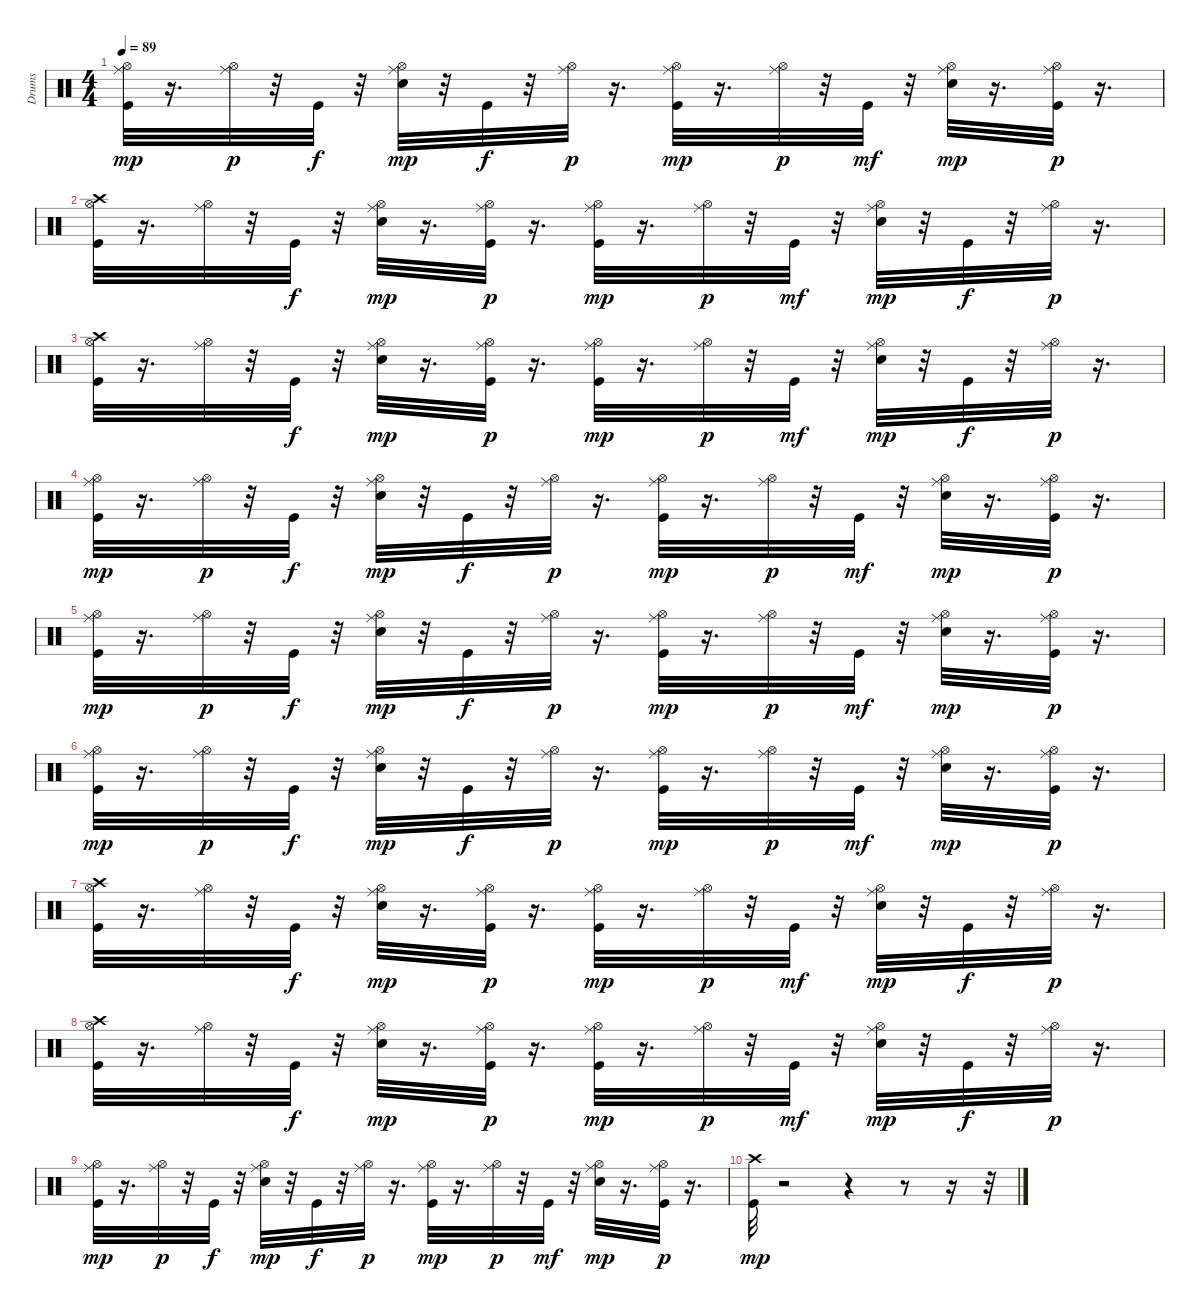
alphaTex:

\track ("Drums   " "Drums   ") {instrument percussion}
\staff {score}
\articulation defaults
\ts (4 4)
\tempo 89
\clef neutral
\ks c
("Kick (hit)" "Hi-Hat (open)" "Ride (middle)").32{dy mp} r.16{d} ("Hi-Hat (open)" "Ride (middle)").32{dy p} r.32 "Kick (hit)".32{dy f} r.32 ("Electric Snare (hit)" "Hi-Hat (open)" "Ride (middle)").32{dy mp} r.32 "Kick (hit)".32{dy f} r.32 ("Hi-Hat (open)" "Ride (middle)").32{dy p} r.16{d} ("Kick (hit)" "Hi-Hat (open)" "Ride (middle)").32{dy mp} r.16{d} ("Hi-Hat (open)" "Ride (middle)").32{dy p} r.32 "Kick (hit)".32{dy mf} r.32 ("Electric Snare (hit)" "Hi-Hat (open)" "Ride (middle)").32{dy mp} r.16{d} ("Kick (hit)" "Hi-Hat (open)" "Ride (middle)").32{dy p} r.16{d} |
("Kick (hit)" "Hi-Hat (open)" "Crash high (hit)").32 r.16{d} ("Hi-Hat (open)" "Ride (middle)").32 r.32 "Kick (hit)".32{dy f} r.32 ("Electric Snare (hit)" "Hi-Hat (open)" "Ride (middle)").32{dy mp} r.16{d} ("Kick (hit)" "Hi-Hat (open)" "Ride (middle)").32{dy p} r.16{d} ("Kick (hit)" "Hi-Hat (open)" "Ride (middle)").32{dy mp} r.16{d} ("Hi-Hat (open)" "Ride (middle)").32{dy p} r.32 "Kick (hit)".32{dy mf} r.32 ("Electric Snare (hit)" "Hi-Hat (open)" "Ride (middle)").32{dy mp} r.32 "Kick (hit)".32{dy f} r.32 ("Hi-Hat (open)" "Ride (middle)").32{dy p} r.16{d} |
("Kick (hit)" "Hi-Hat (open)" "Crash high (hit)").32 r.16{d} ("Hi-Hat (open)" "Ride (middle)").32 r.32 "Kick (hit)".32{dy f} r.32 ("Electric Snare (hit)" "Hi-Hat (open)" "Ride (middle)").32{dy mp} r.16{d} ("Kick (hit)" "Hi-Hat (open)" "Ride (middle)").32{dy p} r.16{d} ("Kick (hit)" "Hi-Hat (open)" "Ride (middle)").32{dy mp} r.16{d} ("Hi-Hat (open)" "Ride (middle)").32{dy p} r.32 "Kick (hit)".32{dy mf} r.32 ("Electric Snare (hit)" "Hi-Hat (open)" "Ride (middle)").32{dy mp} r.32 "Kick (hit)".32{dy f} r.32 ("Hi-Hat (open)" "Ride (middle)").32{dy p} r.16{d} |
("Kick (hit)" "Hi-Hat (open)" "Ride (middle)").32{dy mp volume 15} r.16{d} ("Hi-Hat (open)" "Ride (middle)").32{dy p} r.32 "Kick (hit)".32{dy f volume 14} r.32 ("Electric Snare (hit)" "Hi-Hat (open)" "Ride (middle)").32{dy mp volume 14} r.32 "Kick (hit)".32{dy f} r.32 ("Hi-Hat (open)" "Ride (middle)").32{dy p} r.16{d} ("Kick (hit)" "Hi-Hat (open)" "Ride (middle)").32{dy mp volume 14} r.16{d} ("Hi-Hat (open)" "Ride (middle)").32{dy p} r.32 "Kick (hit)".32{dy mf volume 13} r.32 ("Electric Snare (hit)" "Hi-Hat (open)" "Ride (middle)").32{dy mp volume 13} r.16{d} ("Kick (hit)" "Hi-Hat (open)" "Ride (middle)").32{dy p} r.16{d} |
("Kick (hit)" "Hi-Hat (open)" "Ride (middle)").32{dy mp volume 12} r.16{d} ("Hi-Hat (open)" "Ride (middle)").32{dy p} r.32 "Kick (hit)".32{dy f volume 12} r.32 ("Electric Snare (hit)" "Hi-Hat (open)" "Ride (middle)").32{dy mp volume 12} r.32 "Kick (hit)".32{dy f} r.32 ("Hi-Hat (open)" "Ride (middle)").32{dy p} r.16{d} ("Kick (hit)" "Hi-Hat (open)" "Ride (middle)").32{dy mp volume 11} r.16{d} ("Hi-Hat (open)" "Ride (middle)").32{dy p} r.32 "Kick (hit)".32{dy mf volume 11} r.32 ("Electric Snare (hit)" "Hi-Hat (open)" "Ride (middle)").32{dy mp volume 10} r.16{d} ("Kick (hit)" "Hi-Hat (open)" "Ride (middle)").32{dy p} r.16{d} |
("Kick (hit)" "Hi-Hat (open)" "Ride (middle)").32{dy mp volume 10} r.16{d} ("Hi-Hat (open)" "Ride (middle)").32{dy p} r.32 "Kick (hit)".32{dy f volume 10} r.32 ("Electric Snare (hit)" "Hi-Hat (open)" "Ride (middle)").32{dy mp volume 9} r.32 "Kick (hit)".32{dy f} r.32 ("Hi-Hat (open)" "Ride (middle)").32{dy p} r.16{d} ("Kick (hit)" "Hi-Hat (open)" "Ride (middle)").32{dy mp volume 9} r.16{d} ("Hi-Hat (open)" "Ride (middle)").32{dy p} r.32 "Kick (hit)".32{dy mf volume 8} r.32 ("Electric Snare (hit)" "Hi-Hat (open)" "Ride (middle)").32{dy mp volume 8} r.16{d} ("Kick (hit)" "Hi-Hat (open)" "Ride (middle)").32{dy p} r.16{d} |
("Kick (hit)" "Hi-Hat (open)" "Crash high (hit)").32{volume 8} r.16{d} ("Hi-Hat (open)" "Ride (middle)").32 r.32 "Kick (hit)".32{dy f volume 7} r.32 ("Electric Snare (hit)" "Hi-Hat (open)" "Ride (middle)").32{dy mp volume 7} r.16{d} ("Kick (hit)" "Hi-Hat (open)" "Ride (middle)").32{dy p} r.16{d} ("Kick (hit)" "Hi-Hat (open)" "Ride (middle)").32{dy mp volume 6} r.16{d} ("Hi-Hat (open)" "Ride (middle)").32{dy p} r.32 "Kick (hit)".32{dy mf volume 6} r.32 ("Electric Snare (hit)" "Hi-Hat (open)" "Ride (middle)").32{dy mp volume 6} r.32 "Kick (hit)".32{dy f} r.32 ("Hi-Hat (open)" "Ride (middle)").32{dy p} r.16{d} |
("Kick (hit)" "Hi-Hat (open)" "Crash high (hit)").32{volume 5} r.16{d} ("Hi-Hat (open)" "Ride (middle)").32 r.32 "Kick (hit)".32{dy f volume 5} r.32 ("Electric Snare (hit)" "Hi-Hat (open)" "Ride (middle)").32{dy mp volume 5} r.16{d} ("Kick (hit)" "Hi-Hat (open)" "Ride (middle)").32{dy p} r.16{d} ("Kick (hit)" "Hi-Hat (open)" "Ride (middle)").32{dy mp volume 4} r.16{d} ("Hi-Hat (open)" "Ride (middle)").32{dy p} r.32 "Kick (hit)".32{dy mf volume 3} r.32 ("Electric Snare (hit)" "Hi-Hat (open)" "Ride (middle)").32{dy mp volume 3} r.32 "Kick (hit)".32{dy f} r.32 ("Hi-Hat (open)" "Ride (middle)").32{dy p} r.16{d} |
("Kick (hit)" "Hi-Hat (open)" "Ride (middle)").32{dy mp volume 3} r.16{d} ("Hi-Hat (open)" "Ride (middle)").32{dy p} r.32 "Kick (hit)".32{dy f volume 2} r.32 ("Electric Snare (hit)" "Hi-Hat (open)" "Ride (middle)").32{dy mp volume 2} r.32 "Kick (hit)".32{dy f} r.32 ("Hi-Hat (open)" "Ride (middle)").32{dy p} r.16{d} ("Kick (hit)" "Hi-Hat (open)" "Ride (middle)").32{dy mp volume 2} r.16{d} ("Hi-Hat (open)" "Ride (middle)").32{dy p} r.32 "Kick (hit)".32{dy mf volume 1} r.32 ("Electric Snare (hit)" "Hi-Hat (open)" "Ride (middle)").32{dy mp volume 1} r.16{d} ("Kick (hit)" "Hi-Hat (open)" "Ride (middle)").32{dy p} r.16{d} |
("Kick (hit)" "Crash high (hit)").32{dy mp volume 0} r.2 r.4 r.8 r.16 r.32
